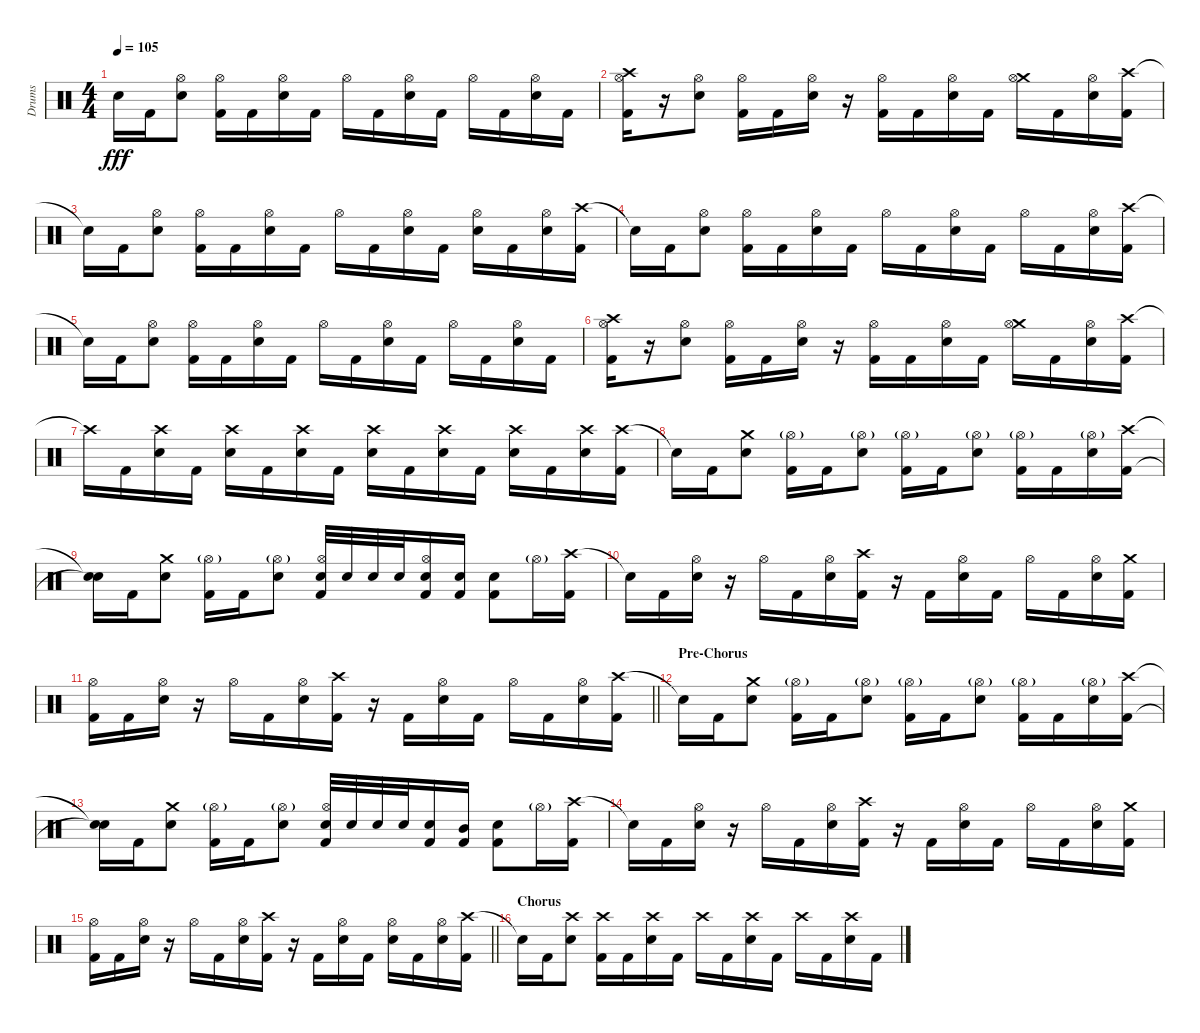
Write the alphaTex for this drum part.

\track ("Drums" "Drums") {instrument percussion}
\staff {score}
\articulation defaults
\ts (4 4)
\tempo 105
\clef neutral
\ks c "Snare (hit)"{t}.16{dy fff} "Kick (hit) 2".16
("Hi-Hat (open)" "Electric Snare (hit)").8 ("Hi-Hat (open)" "Kick (hit) 2").16 "Kick (hit) 2".16 ("Hi-Hat (open)" "Electric Snare (hit)").16 "Kick (hit) 2".16 "Hi-Hat (open)".16 "Kick (hit) 2".16 ("Hi-Hat (open)" "Electric Snare (hit)").16 "Kick (hit) 2".16 "Hi-Hat (open)".16 "Kick (hit) 2".16 ("Hi-Hat (open)" "Electric Snare (hit)").16 "Kick (hit) 2".16 |
("Crash high (hit)" "Hi-Hat (open)" "Kick (hit) 2").16 r.16 ("Hi-Hat (open)" "Electric Snare (hit)").8 ("Hi-Hat (open)" "Kick (hit) 2").16 "Kick (hit) 2".16 ("Hi-Hat (open)" "Electric Snare (hit)").16 r.16 ("Hi-Hat (open)" "Kick (hit) 2").16 "Kick (hit) 2".16 ("Hi-Hat (open)" "Electric Snare (hit)").16 "Kick (hit) 2".16 ("Crash medium (hit)" "Hi-Hat (open)").16 "Kick (hit) 2".16 ("Hi-Hat (open)" "Electric Snare (hit)").16 ("Crash high (hit)" "Kick (hit) 2").16 |
"Snare (hit)"{t}.16 "Kick (hit) 2".16 ("Hi-Hat (open)" "Electric Snare (hit)").8 ("Hi-Hat (open)" "Kick (hit) 2").16 "Kick (hit) 2".16 ("Hi-Hat (open)" "Electric Snare (hit)").16 "Kick (hit) 2".16 "Hi-Hat (open)".16 "Kick (hit) 2".16 ("Hi-Hat (open)" "Electric Snare (hit)").16 "Kick (hit) 2".16 ("Hi-Hat (open)" "Electric Snare (hit)").16 "Kick (hit) 2".16 ("Hi-Hat (open)" "Electric Snare (hit)").16 ("Crash high (hit)" "Kick (hit) 2").16 |
"Snare (hit)"{t}.16 "Kick (hit) 2".16 ("Hi-Hat (open)" "Electric Snare (hit)").8 ("Hi-Hat (open)" "Kick (hit) 2").16 "Kick (hit) 2".16 ("Hi-Hat (open)" "Electric Snare (hit)").16 "Kick (hit) 2".16 "Hi-Hat (open)".16 "Kick (hit) 2".16 ("Hi-Hat (open)" "Electric Snare (hit)").16 "Kick (hit) 2".16 "Hi-Hat (open)".16 "Kick (hit) 2".16 ("Hi-Hat (open)" "Electric Snare (hit)").16 ("Crash high (hit)" "Kick (hit) 2").16 |
"Snare (hit)"{t}.16 "Kick (hit) 2".16 ("Hi-Hat (open)" "Electric Snare (hit)").8 ("Hi-Hat (open)" "Kick (hit) 2").16 "Kick (hit) 2".16 ("Hi-Hat (open)" "Electric Snare (hit)").16 "Kick (hit) 2".16 "Hi-Hat (open)".16 "Kick (hit) 2".16 ("Hi-Hat (open)" "Electric Snare (hit)").16 "Kick (hit) 2".16 "Hi-Hat (open)".16 "Kick (hit) 2".16 ("Hi-Hat (open)" "Electric Snare (hit)").16 "Kick (hit) 2".16 |
("Crash high (hit)" "Hi-Hat (open)" "Kick (hit) 2").16 r.16 ("Hi-Hat (open)" "Electric Snare (hit)").8 ("Hi-Hat (open)" "Kick (hit) 2").16 "Kick (hit) 2".16 ("Hi-Hat (open)" "Electric Snare (hit)").16 r.16 ("Hi-Hat (open)" "Kick (hit) 2").16 "Kick (hit) 2".16 ("Hi-Hat (open)" "Electric Snare (hit)").16 "Kick (hit) 2".16 ("Crash medium (hit)" "Hi-Hat (open)").16 "Kick (hit) 2".16 ("Hi-Hat (open)" "Electric Snare (hit)").16 ("Crash high (hit)" "Kick (hit) 2").16 |
"Crash high (hit)"{t}.16 "Kick (hit) 2".16 ("Crash high (hit)" "Electric Snare (hit)").16 "Kick (hit) 2".16 ("Crash high (hit)" "Electric Snare (hit)").16 "Kick (hit) 2".16 ("Crash high (hit)" "Electric Snare (hit)").16 "Kick (hit) 2".16 ("Crash high (hit)" "Electric Snare (hit)").16 "Kick (hit) 2".16 ("Crash high (hit)" "Electric Snare (hit)").16 "Kick (hit) 2".16 ("Crash high (hit)" "Electric Snare (hit)").16 "Kick (hit) 2".16 ("Crash high (hit)" "Electric Snare (hit)").16 ("Crash high (hit)" "Kick (hit) 2").16 |
"Snare (hit)"{t}.16 "Kick (hit) 2".16 ("Crash medium (hit)" "Electric Snare (hit)").8 ("Hi-Hat (open)"{g} "Kick (hit) 2").16 "Kick (hit) 2".16 ("Hi-Hat (open)"{g} "Electric Snare (hit)").8 ("Hi-Hat (open)"{g} "Kick (hit) 2").16 "Kick (hit) 2".16 ("Hi-Hat (open)"{g} "Electric Snare (hit)").8 ("Hi-Hat (open)"{g} "Kick (hit) 2").16 "Kick (hit) 2".16 ("Hi-Hat (open)"{g} "Electric Snare (hit)").16 ("Crash high (hit)" "Kick (hit) 2").16 |
("Snare (hit)"{t} "Snare (hit)"{t}).16 "Kick (hit) 2".16 ("Crash medium (hit)" "Electric Snare (hit)").8 ("Hi-Hat (open)"{g} "Kick (hit) 2").16 "Kick (hit) 2".16 ("Hi-Hat (open)"{g} "Electric Snare (hit)").8 ("Hi-Hat (open)" "Electric Snare (hit)" "Kick (hit) 2").32 "Electric Snare (hit)".32 "Electric Snare (hit)".32 "Electric Snare (hit)".32 ("Hi-Hat (open)" "Electric Snare (hit)" "Kick (hit) 2").16 ("Electric Snare (hit)" "Kick (hit) 2").16 ("Electric Snare (hit)" "Kick (hit) 2").8 "Hi-Hat (open)"{g}.16 ("Crash high (hit)" "Kick (hit) 2").16 |
"Snare (hit)"{t}.16 "Kick (hit) 2".16 ("Hi-Hat (open)" "Electric Snare (hit)").16 r.16 "Hi-Hat (open)".16 "Kick (hit) 2".16 ("Hi-Hat (open)" "Electric Snare (hit)").16 ("Crash high (hit)" "Kick (hit) 2").16 r.16 "Kick (hit) 2".16 ("Hi-Hat (open)" "Electric Snare (hit)").16 "Kick (hit) 2".16 "Hi-Hat (open)".16 "Kick (hit) 2".16 ("Hi-Hat (open)" "Electric Snare (hit)").16 ("Crash medium (hit)" "Kick (hit) 2").16 |
\barLineRight lightlight
("Hi-Hat (open)" "Kick (hit) 2").16 "Kick (hit) 2".16 ("Hi-Hat (open)" "Electric Snare (hit)").16 r.16 "Hi-Hat (open)".16 "Kick (hit) 2".16 ("Hi-Hat (open)" "Electric Snare (hit)").16 ("Crash high (hit)" "Kick (hit) 2").16 r.16 "Kick (hit) 2".16 ("Hi-Hat (open)" "Electric Snare (hit)").16 "Kick (hit) 2".16 "Hi-Hat (open)".16 "Kick (hit) 2".16 ("Hi-Hat (open)" "Electric Snare (hit)").16 ("Crash high (hit)" "Kick (hit) 2").16 |
\section ("" "Pre-Chorus")
"Snare (hit)"{t}.16 "Kick (hit) 2".16 ("Crash medium (hit)" "Electric Snare (hit)").8 ("Hi-Hat (open)"{g} "Kick (hit) 2").16 "Kick (hit) 2".16 ("Hi-Hat (open)"{g} "Electric Snare (hit)").8 ("Hi-Hat (open)"{g} "Kick (hit) 2").16 "Kick (hit) 2".16 ("Hi-Hat (open)"{g} "Electric Snare (hit)").8 ("Hi-Hat (open)"{g} "Kick (hit) 2").16 "Kick (hit) 2".16 ("Hi-Hat (open)"{g} "Electric Snare (hit)").16 ("Crash high (hit)" "Kick (hit) 2").16 |
("Snare (hit)"{t} "Snare (hit)"{t}).16 "Kick (hit) 2".16 ("Crash medium (hit)" "Electric Snare (hit)").8 ("Hi-Hat (open)"{g} "Kick (hit) 2").16 "Kick (hit) 2".16 ("Hi-Hat (open)"{g} "Electric Snare (hit)").8 ("Hi-Hat (open)" "Electric Snare (hit)" "Kick (hit) 2").32 "Electric Snare (hit)".32 "Electric Snare (hit)".32 "Electric Snare (hit)".32 ("Electric Snare (hit)" "Kick (hit) 2").16 ("Mid Tom (hit)" "Kick (hit) 2").16 ("Electric Snare (hit)" "Kick (hit) 2").8 "Hi-Hat (open)"{g}.16 ("Crash high (hit)" "Kick (hit) 2").16 |
"Snare (hit)"{t}.16 "Kick (hit) 2".16 ("Hi-Hat (open)" "Electric Snare (hit)").16 r.16 "Hi-Hat (open)".16 "Kick (hit) 2".16 ("Hi-Hat (open)" "Electric Snare (hit)").16 ("Crash high (hit)" "Kick (hit) 2").16 r.16 "Kick (hit) 2".16 ("Hi-Hat (open)" "Electric Snare (hit)").16 "Kick (hit) 2".16 "Hi-Hat (open)".16 "Kick (hit) 2".16 ("Hi-Hat (open)" "Electric Snare (hit)").16 ("Crash medium (hit)" "Kick (hit) 2").16 |
\barLineRight lightlight
("Hi-Hat (open)" "Kick (hit) 2").16 "Kick (hit) 2".16 ("Hi-Hat (open)" "Electric Snare (hit)").16 r.16 "Hi-Hat (open)".16 "Kick (hit) 2".16 ("Hi-Hat (open)" "Electric Snare (hit)").16 ("Crash high (hit)" "Kick (hit) 2").16 r.16 "Kick (hit) 2".16 ("Hi-Hat (open)" "Electric Snare (hit)").16 "Kick (hit) 2".16 ("Hi-Hat (open)" "Electric Snare (hit)").16 "Kick (hit) 2".16 ("Hi-Hat (open)" "Electric Snare (hit)").16 ("Crash high (hit)" "Kick (hit) 2").16 |
\section ("" "Chorus")
"Snare (hit)"{t}.16 "Kick (hit) 2".16 ("Crash high (hit)" "Electric Snare (hit)").8 ("Crash high (hit)" "Kick (hit) 2").16 "Kick (hit) 2".16 ("Crash high (hit)" "Electric Snare (hit)").16 "Kick (hit) 2".16 "Crash high (hit)".16 "Kick (hit) 2".16 ("Crash high (hit)" "Electric Snare (hit)").16 "Kick (hit) 2".16 "Crash high (hit)".16 "Kick (hit) 2".16 ("Crash high (hit)" "Electric Snare (hit)").16 "Kick (hit) 2".16
